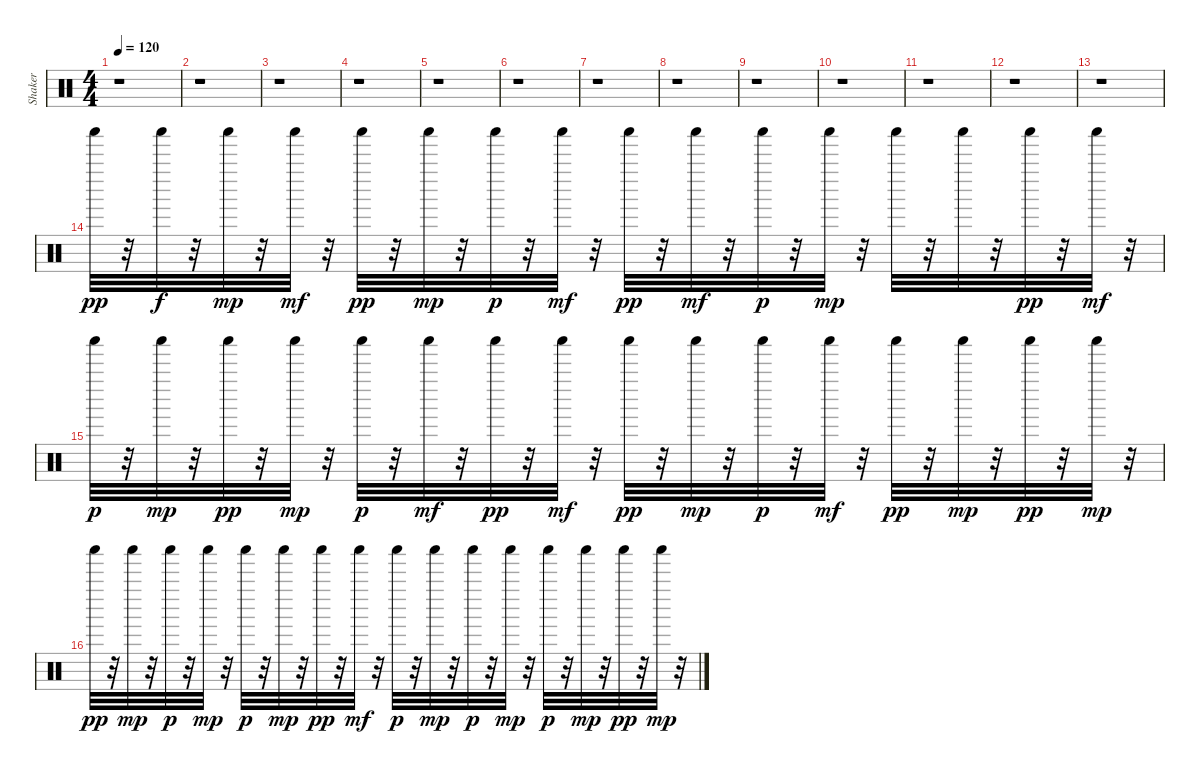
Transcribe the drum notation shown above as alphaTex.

\track ("Shaker" "Shaker") {instrument percussion}
\staff {score}
\articulation defaults
\ts (4 4)
\tempo 120
\clef neutral
\ks c
r.1{dy mp} |
r.1 |
r.1 |
r.1 |
r.1 |
r.1 |
r.1 |
r.1 |
r.1 |
r.1 |
r.1 |
r.1 |
r.1 |
"Shaker (hit)".32{dy pp} r.32 "Shaker (hit)".32{dy f} r.32 "Shaker (hit)".32{dy mp} r.32 "Shaker (hit)".32{dy mf} r.32 "Shaker (hit)".32{dy pp} r.32 "Shaker (hit)".32{dy mp} r.32 "Shaker (hit)".32{dy p} r.32 "Shaker (hit)".32{dy mf} r.32 "Shaker (hit)".32{dy pp} r.32 "Shaker (hit)".32{dy mf} r.32 "Shaker (hit)".32{dy p} r.32 "Shaker (hit)".32{dy mp} r.32 "Shaker (hit)".32 r.32 "Shaker (hit)".32 r.32 "Shaker (hit)".32{dy pp} r.32 "Shaker (hit)".32{dy mf} r.32 |
"Shaker (hit)".32{dy p} r.32 "Shaker (hit)".32{dy mp} r.32 "Shaker (hit)".32{dy pp} r.32 "Shaker (hit)".32{dy mp} r.32 "Shaker (hit)".32{dy p} r.32 "Shaker (hit)".32{dy mf} r.32 "Shaker (hit)".32{dy pp} r.32 "Shaker (hit)".32{dy mf} r.32 "Shaker (hit)".32{dy pp} r.32 "Shaker (hit)".32{dy mp} r.32 "Shaker (hit)".32{dy p} r.32 "Shaker (hit)".32{dy mf} r.32 "Shaker (hit)".32{dy pp} r.32 "Shaker (hit)".32{dy mp} r.32 "Shaker (hit)".32{dy pp} r.32 "Shaker (hit)".32{dy mp} r.32 |
"Shaker (hit)".32{dy pp} r.32 "Shaker (hit)".32{dy mp} r.32 "Shaker (hit)".32{dy p} r.32 "Shaker (hit)".32{dy mp} r.32 "Shaker (hit)".32{dy p} r.32 "Shaker (hit)".32{dy mp} r.32 "Shaker (hit)".32{dy pp} r.32 "Shaker (hit)".32{dy mf} r.32 "Shaker (hit)".32{dy p} r.32 "Shaker (hit)".32{dy mp} r.32 "Shaker (hit)".32{dy p} r.32 "Shaker (hit)".32{dy mp} r.32 "Shaker (hit)".32{dy p} r.32 "Shaker (hit)".32{dy mp} r.32 "Shaker (hit)".32{dy pp} r.32 "Shaker (hit)".32{dy mp} r.32
